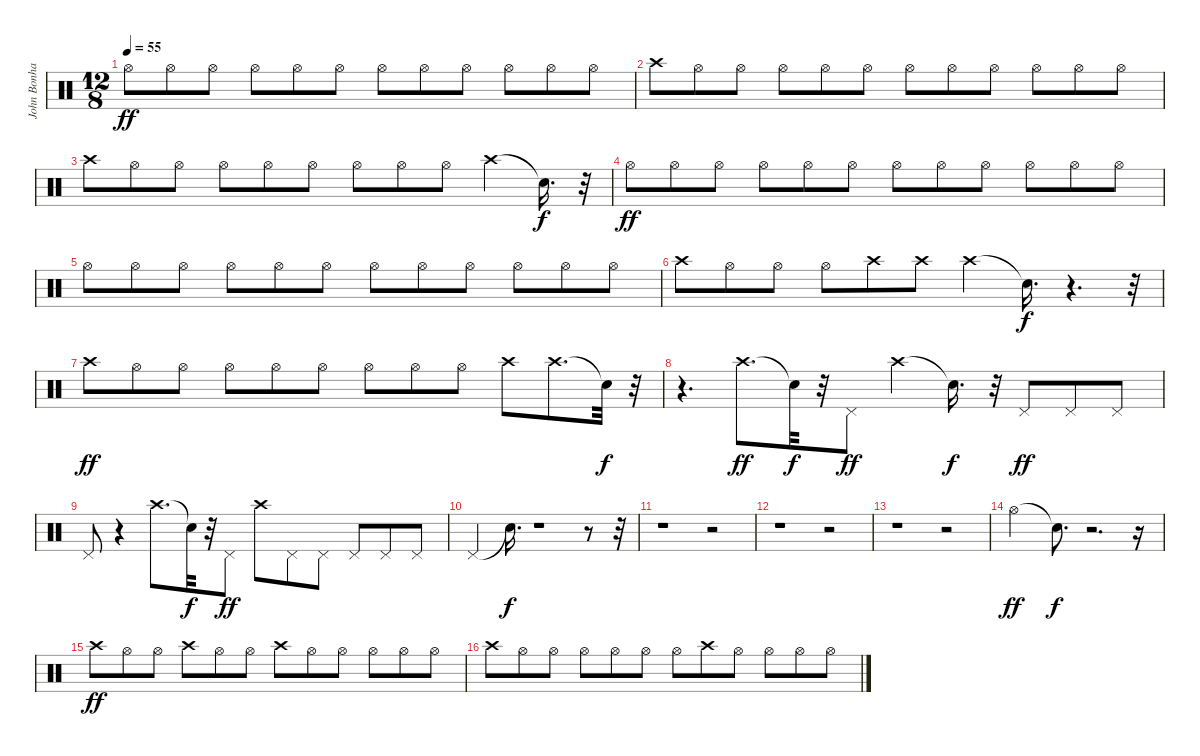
\track ("John Bonham - Drums" "John Bonha") {instrument percussion}
\staff {score}
\articulation defaults
\ts (12 8)
\tempo 55
\clef neutral
\ks c "Hi-Hat (open)".8{dy ff} "Hi-Hat (open)".8 "Hi-Hat (open)".8 "Hi-Hat (open)".8 "Hi-Hat (open)".8 "Hi-Hat (open)".8 "Hi-Hat (open)".8 "Hi-Hat (open)".8 "Hi-Hat (open)".8 "Hi-Hat (open)".8 "Hi-Hat (open)".8 "Hi-Hat (open)".8
|
"Crash high (hit)".8 "Hi-Hat (open)".8 "Hi-Hat (open)".8 "Hi-Hat (open)".8 "Hi-Hat (open)".8 "Hi-Hat (open)".8 "Hi-Hat (open)".8 "Hi-Hat (open)".8 "Hi-Hat (open)".8 "Hi-Hat (open)".8 "Hi-Hat (open)".8 "Hi-Hat (open)".8 |
"Crash high (hit)".8 "Hi-Hat (open)".8 "Hi-Hat (open)".8 "Hi-Hat (open)".8 "Hi-Hat (open)".8 "Hi-Hat (open)".8 "Hi-Hat (open)".8 "Hi-Hat (open)".8 "Hi-Hat (open)".8 "Crash high (hit)".4 "Snare (hit)"{t}.16{d dy f} r.32 |
"Hi-Hat (open)".8{dy ff} "Hi-Hat (open)".8 "Hi-Hat (open)".8 "Hi-Hat (open)".8 "Hi-Hat (open)".8 "Hi-Hat (open)".8 "Hi-Hat (open)".8 "Hi-Hat (open)".8 "Hi-Hat (open)".8 "Hi-Hat (open)".8 "Hi-Hat (open)".8 "Hi-Hat (open)".8 |
"Hi-Hat (open)".8 "Hi-Hat (open)".8 "Hi-Hat (open)".8 "Hi-Hat (open)".8 "Hi-Hat (open)".8 "Hi-Hat (open)".8 "Hi-Hat (open)".8 "Hi-Hat (open)".8 "Hi-Hat (open)".8 "Hi-Hat (open)".8 "Hi-Hat (open)".8 "Hi-Hat (open)".8 |
"Crash high (hit)".8 "Hi-Hat (open)".8 "Hi-Hat (open)".8 "Hi-Hat (open)".8 "Crash high (hit)".8 "Crash high (hit)".8 "Crash high (hit)".4 "Snare (hit)"{t}.16{d dy f} r.4{d} r.32 |
"Crash high (hit)".8{dy ff} "Hi-Hat (open)".8 "Hi-Hat (open)".8 "Hi-Hat (open)".8 "Hi-Hat (open)".8 "Hi-Hat (open)".8 "Hi-Hat (open)".8 "Hi-Hat (open)".8 "Hi-Hat (open)".8 "Crash high (hit)".8 "Crash high (hit)".8{d} "Snare (hit)"{t}.32{dy f} r.32 |
r.4{d} "Crash high (hit)".8{d dy ff} "Snare (hit)"{t}.32{dy f} r.32 "Pedal Hi-Hat (hit)".8{dy ff} "Crash high (hit)".4 "Snare (hit)"{t}.16{d dy f} r.32 "Pedal Hi-Hat (hit)".8{dy ff} "Pedal Hi-Hat (hit)".8 "Pedal Hi-Hat (hit)".8 |
"Pedal Hi-Hat (hit)".8 r.4 "Crash high (hit)".8{d} "Snare (hit)"{t}.32{dy f} r.32 "Pedal Hi-Hat (hit)".8{dy ff} "Crash high (hit)".8 "Pedal Hi-Hat (hit)".8 "Pedal Hi-Hat (hit)".8 "Pedal Hi-Hat (hit)".8 "Pedal Hi-Hat (hit)".8 "Pedal Hi-Hat (hit)".8 |
"Pedal Hi-Hat (hit)".4 "Snare (hit)"{t}.16{d dy f} r.1 r.8 r.32 |
r.1 r.2 |
r.1 r.2 |
r.1 r.2 |
"Hi-Hat (open)".2{dy ff} "Snare (hit)"{t}.8{d dy f} r.2{d} r.16 |
"Crash high (hit)".8{dy ff} "Hi-Hat (open)".8 "Hi-Hat (open)".8 "Crash high (hit)".8 "Hi-Hat (open)".8 "Hi-Hat (open)".8 "Crash high (hit)".8 "Hi-Hat (open)".8 "Hi-Hat (open)".8 "Hi-Hat (open)".8 "Hi-Hat (open)".8 "Hi-Hat (open)".8 |
"Crash high (hit)".8 "Hi-Hat (open)".8 "Hi-Hat (open)".8 "Hi-Hat (open)".8 "Hi-Hat (open)".8 "Hi-Hat (open)".8 "Hi-Hat (open)".8 "Crash high (hit)".8 "Hi-Hat (open)".8 "Hi-Hat (open)".8 "Hi-Hat (open)".8 "Hi-Hat (open)".8
